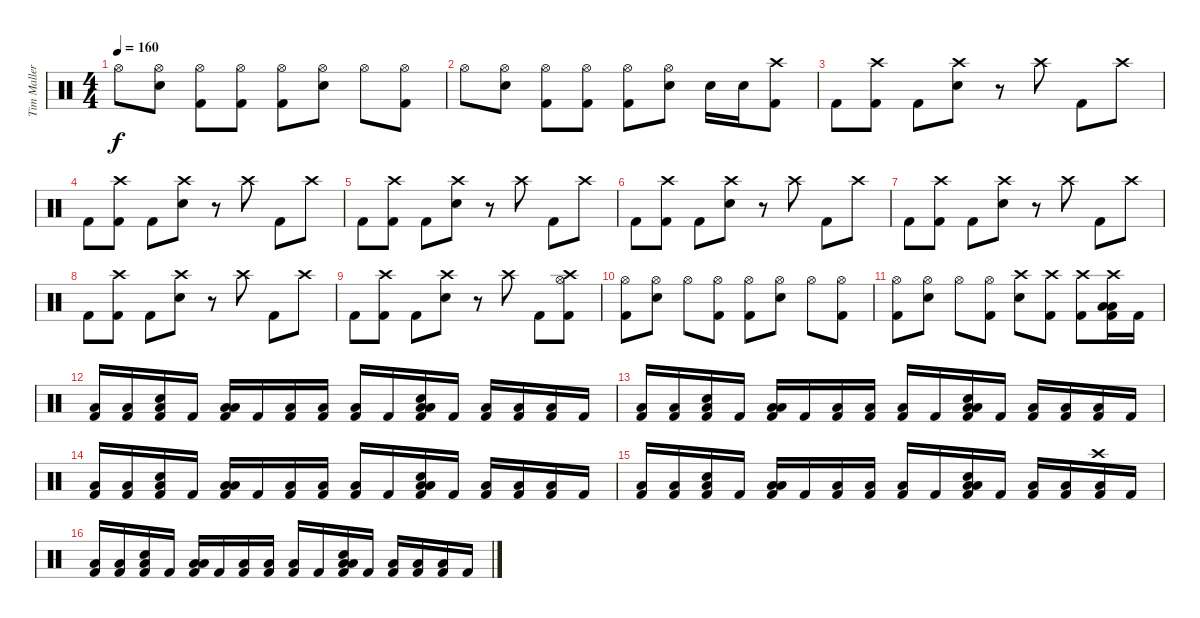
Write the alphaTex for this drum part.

\track ("Tim Mallere" "Tim Maller") {instrument percussion}
\staff {score}
\articulation defaults
\ts (4 4)
\tempo 160
\clef neutral
\ks c "Hi-Hat (open)".8{dy f}
("Hi-Hat (open)" "Electric Snare (hit)").8 ("Hi-Hat (open)" "Kick (hit) 2").8 ("Hi-Hat (open)" "Kick (hit) 2").8 ("Hi-Hat (open)" "Kick (hit) 2").8 ("Hi-Hat (open)" "Electric Snare (hit)").8 "Hi-Hat (open)".8 ("Hi-Hat (open)" "Kick (hit) 2").8 |
"Hi-Hat (open)".8 ("Hi-Hat (open)" "Electric Snare (hit)").8 ("Hi-Hat (open)" "Kick (hit) 2").8 ("Hi-Hat (open)" "Kick (hit) 2").8 ("Hi-Hat (open)" "Kick (hit) 2").8 ("Hi-Hat (open)" "Electric Snare (hit)").8 "Electric Snare (hit)".16 "Electric Snare (hit)".16 ("Crash high (hit)" "Kick (hit) 2").8 |
"Kick (hit) 2".8 ("Crash high (hit)" "Kick (hit) 2").8 "Kick (hit) 2".8 ("Crash high (hit)" "Electric Snare (hit)").8 r.8 "Crash high (hit)".8 "Kick (hit) 2".8 "Crash high (hit)".8 |
"Kick (hit) 2".8 ("Crash high (hit)" "Kick (hit) 2").8 "Kick (hit) 2".8 ("Crash high (hit)" "Electric Snare (hit)").8 r.8 "Crash high (hit)".8 "Kick (hit) 2".8 "Crash high (hit)".8 |
"Kick (hit) 2".8 ("Crash high (hit)" "Kick (hit) 2").8 "Kick (hit) 2".8 ("Crash high (hit)" "Electric Snare (hit)").8 r.8 "Crash high (hit)".8 "Kick (hit) 2".8 "Crash high (hit)".8 |
"Kick (hit) 2".8 ("Crash high (hit)" "Kick (hit) 2").8 "Kick (hit) 2".8 ("Crash high (hit)" "Electric Snare (hit)").8 r.8 "Crash high (hit)".8 "Kick (hit) 2".8 "Crash high (hit)".8 |
"Kick (hit) 2".8 ("Crash high (hit)" "Kick (hit) 2").8 "Kick (hit) 2".8 ("Crash high (hit)" "Electric Snare (hit)").8 r.8 "Crash high (hit)".8 "Kick (hit) 2".8 "Crash high (hit)".8 |
"Kick (hit) 2".8 ("Crash high (hit)" "Kick (hit) 2").8 "Kick (hit) 2".8 ("Crash high (hit)" "Electric Snare (hit)").8 r.8 "Crash high (hit)".8 "Kick (hit) 2".8 "Crash high (hit)".8 |
"Kick (hit) 2".8 ("Crash high (hit)" "Kick (hit) 2").8 "Kick (hit) 2".8 ("Crash high (hit)" "Electric Snare (hit)").8 r.8 "Crash high (hit)".8 "Kick (hit) 2".8 ("Crash high (hit)" "Hi-Hat (open)" "Kick (hit) 2").8 |
("Hi-Hat (open)" "Kick (hit) 2").8 ("Hi-Hat (open)" "Electric Snare (hit)").8 "Hi-Hat (open)".8 ("Hi-Hat (open)" "Kick (hit) 2").8 ("Hi-Hat (open)" "Kick (hit) 2").8 ("Hi-Hat (open)" "Electric Snare (hit)").8 "Hi-Hat (open)".8 ("Hi-Hat (open)" "Kick (hit) 2").8 |
("Hi-Hat (open)" "Kick (hit) 2").8 ("Hi-Hat (open)" "Electric Snare (hit)").8 "Hi-Hat (open)".8 ("Hi-Hat (open)" "Kick (hit) 2").8 ("Crash high (hit)" "Electric Snare (hit)").8 ("Crash high (hit)" "Kick (hit) 2").8 ("Crash high (hit)" "Kick (hit) 2").8 ("Crash high (hit)" "Low Floor Tom (hit)" "Low Tom (hit)" "Kick (hit) 2").16 "Kick (hit) 2".16 |
("Low Floor Tom (hit)" "Kick (hit) 2").16 ("Low Tom (hit)" "Kick (hit) 2").16 ("Low Floor Tom (hit)" "Electric Snare (hit)" "Kick (hit) 2").16 "Kick (hit) 2".16 ("Low Floor Tom (hit)" "Low Tom (hit)" "Kick (hit) 2").16 "Kick (hit) 2".16 ("Low Floor Tom (hit)" "Kick (hit) 2").16 ("Low Tom (hit)" "Kick (hit) 2").16 ("Low Floor Tom (hit)" "Kick (hit) 2").16 "Kick (hit) 2".16 ("Low Floor Tom (hit)" "Low Tom (hit)" "Electric Snare (hit)" "Kick (hit) 2").16 "Kick (hit) 2".16 ("Low Floor Tom (hit)" "Kick (hit) 2").16 ("Low Tom (hit)" "Kick (hit) 2").16 ("Low Floor Tom (hit)" "Kick (hit) 2").16 "Kick (hit) 2".16 |
("Low Floor Tom (hit)" "Kick (hit) 2").16 ("Low Tom (hit)" "Kick (hit) 2").16 ("Low Floor Tom (hit)" "Electric Snare (hit)" "Kick (hit) 2").16 "Kick (hit) 2".16 ("Low Floor Tom (hit)" "Low Tom (hit)" "Kick (hit) 2").16 "Kick (hit) 2".16 ("Low Floor Tom (hit)" "Kick (hit) 2").16 ("Low Tom (hit)" "Kick (hit) 2").16 ("Low Floor Tom (hit)" "Kick (hit) 2").16 "Kick (hit) 2".16 ("Low Floor Tom (hit)" "Low Tom (hit)" "Electric Snare (hit)" "Kick (hit) 2").16 "Kick (hit) 2".16 ("Low Floor Tom (hit)" "Kick (hit) 2").16 ("Low Tom (hit)" "Kick (hit) 2").16 ("Low Floor Tom (hit)" "Kick (hit) 2").16 "Kick (hit) 2".16 |
("Low Floor Tom (hit)" "Kick (hit) 2").16 ("Low Tom (hit)" "Kick (hit) 2").16 ("Low Floor Tom (hit)" "Electric Snare (hit)" "Kick (hit) 2").16 "Kick (hit) 2".16 ("Low Floor Tom (hit)" "Low Tom (hit)" "Kick (hit) 2").16 "Kick (hit) 2".16 ("Low Floor Tom (hit)" "Kick (hit) 2").16 ("Low Tom (hit)" "Kick (hit) 2").16 ("Low Floor Tom (hit)" "Kick (hit) 2").16 "Kick (hit) 2".16 ("Low Floor Tom (hit)" "Low Tom (hit)" "Electric Snare (hit)" "Kick (hit) 2").16 "Kick (hit) 2".16 ("Low Floor Tom (hit)" "Kick (hit) 2").16 ("Low Tom (hit)" "Kick (hit) 2").16 ("Low Floor Tom (hit)" "Kick (hit) 2").16 "Kick (hit) 2".16 |
("Low Floor Tom (hit)" "Kick (hit) 2").16 ("Low Tom (hit)" "Kick (hit) 2").16 ("Low Floor Tom (hit)" "Electric Snare (hit)" "Kick (hit) 2").16 "Kick (hit) 2".16 ("Low Floor Tom (hit)" "Low Tom (hit)" "Kick (hit) 2").16 "Kick (hit) 2".16 ("Low Floor Tom (hit)" "Kick (hit) 2").16 ("Low Tom (hit)" "Kick (hit) 2").16 ("Low Floor Tom (hit)" "Kick (hit) 2").16 "Kick (hit) 2".16 ("Low Floor Tom (hit)" "Low Tom (hit)" "Electric Snare (hit)" "Kick (hit) 2").16 "Kick (hit) 2".16 ("Low Floor Tom (hit)" "Kick (hit) 2").16 ("Low Tom (hit)" "Kick (hit) 2").16 ("Crash high (hit)" "Low Floor Tom (hit)" "Kick (hit) 2").16 "Kick (hit) 2".16 |
("Low Floor Tom (hit)" "Kick (hit) 2").16 ("Low Tom (hit)" "Kick (hit) 2").16 ("Low Floor Tom (hit)" "Electric Snare (hit)" "Kick (hit) 2").16 "Kick (hit) 2".16 ("Low Floor Tom (hit)" "Low Tom (hit)" "Kick (hit) 2").16 "Kick (hit) 2".16 ("Low Floor Tom (hit)" "Kick (hit) 2").16 ("Low Tom (hit)" "Kick (hit) 2").16 ("Low Floor Tom (hit)" "Kick (hit) 2").16 "Kick (hit) 2".16 ("Low Floor Tom (hit)" "Low Tom (hit)" "Electric Snare (hit)" "Kick (hit) 2").16 "Kick (hit) 2".16 ("Low Floor Tom (hit)" "Kick (hit) 2").16 ("Low Tom (hit)" "Kick (hit) 2").16 ("Low Floor Tom (hit)" "Kick (hit) 2").16 "Kick (hit) 2".16
